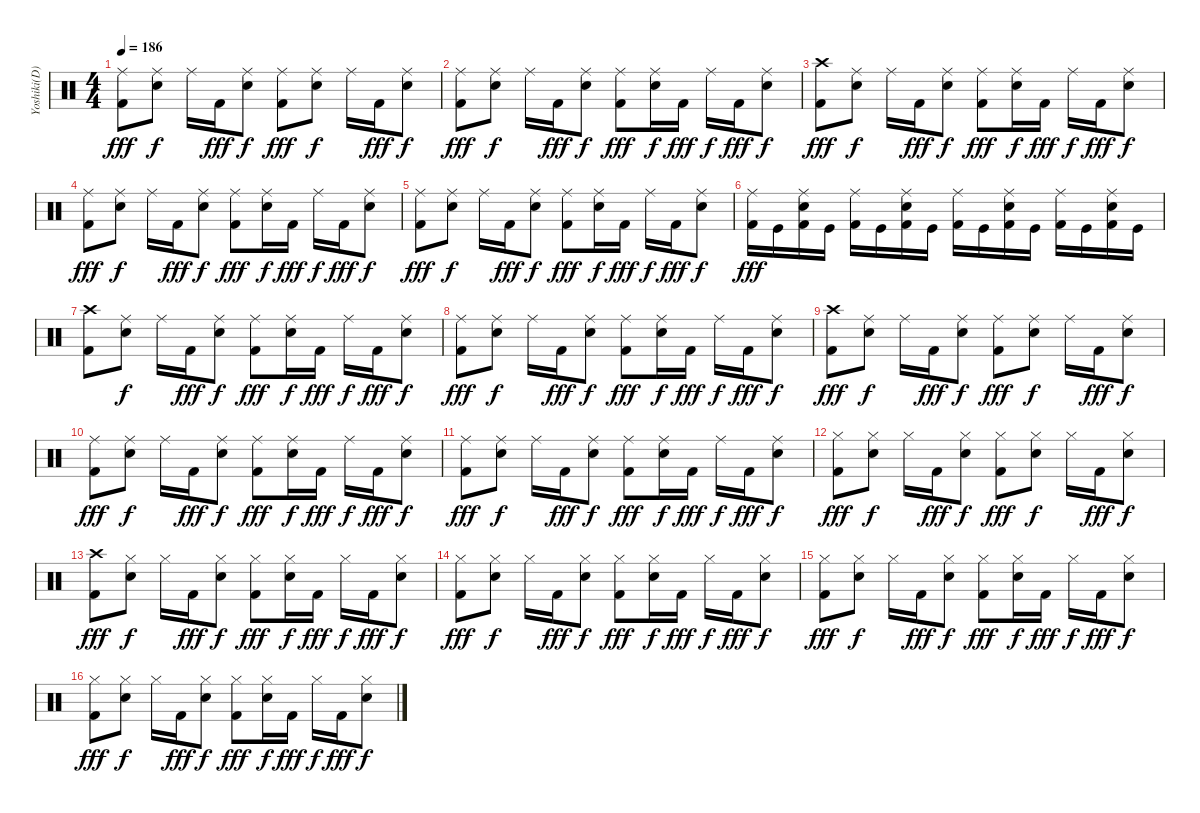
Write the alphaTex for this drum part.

\track ("Yoshiki(D)" "Yoshiki(D)") {instrument percussion}
\staff {score}
\articulation defaults
\ts (4 4)
\tempo 186
\clef neutral
\ks c
("Ride (middle)" "Kick (hit) 2").8{dy fff} ("Ride (middle)" "Electric Snare (hit)").8{dy f} "Ride (middle)".16 "Kick (hit) 2".16{dy fff} ("Ride (middle)" "Electric Snare (hit)").8{dy f} ("Ride (middle)" "Kick (hit) 2").8{dy fff} ("Ride (middle)" "Electric Snare (hit)").8{dy f} "Ride (middle)".16 "Kick (hit) 2".16{dy fff} ("Ride (middle)" "Electric Snare (hit)").8{dy f} |
("Ride (middle)" "Kick (hit) 2").8{dy fff} ("Ride (middle)" "Electric Snare (hit)").8{dy f} "Ride (middle)".16 "Kick (hit) 2".16{dy fff} ("Ride (middle)" "Electric Snare (hit)").8{dy f} ("Ride (middle)" "Kick (hit) 2").8{dy fff} ("Ride (middle)" "Electric Snare (hit)").16{dy f} "Kick (hit) 2".16{dy fff} "Ride (middle)".16{dy f} "Kick (hit) 2".16{dy fff} ("Ride (middle)" "Electric Snare (hit)").8{dy f} |
("Crash high (hit)" "Kick (hit) 2").8{dy fff} ("Ride (middle)" "Electric Snare (hit)").8{dy f} "Ride (middle)".16 "Kick (hit) 2".16{dy fff} ("Ride (middle)" "Electric Snare (hit)").8{dy f} ("Ride (middle)" "Kick (hit) 2").8{dy fff} ("Ride (middle)" "Electric Snare (hit)").16{dy f} "Kick (hit) 2".16{dy fff} "Ride (middle)".16{dy f} "Kick (hit) 2".16{dy fff} ("Ride (middle)" "Electric Snare (hit)").8{dy f} |
("Ride (middle)" "Kick (hit) 2").8{dy fff} ("Ride (middle)" "Electric Snare (hit)").8{dy f} "Ride (middle)".16 "Kick (hit) 2".16{dy fff} ("Ride (middle)" "Electric Snare (hit)").8{dy f} ("Ride (middle)" "Kick (hit) 2").8{dy fff} ("Ride (middle)" "Electric Snare (hit)").16{dy f} "Kick (hit) 2".16{dy fff} "Ride (middle)".16{dy f} "Kick (hit) 2".16{dy fff} ("Ride (middle)" "Electric Snare (hit)").8{dy f} |
("Ride (middle)" "Kick (hit) 2").8{dy fff} ("Ride (middle)" "Electric Snare (hit)").8{dy f} "Ride (middle)".16 "Kick (hit) 2".16{dy fff} ("Ride (middle)" "Electric Snare (hit)").8{dy f} ("Ride (middle)" "Kick (hit) 2").8{dy fff} ("Ride (middle)" "Electric Snare (hit)").16{dy f} "Kick (hit) 2".16{dy fff} "Ride (middle)".16{dy f} "Kick (hit) 2".16{dy fff} ("Ride (middle)" "Electric Snare (hit)").8{dy f} |
("Ride (middle)" "Kick (hit) 2").16{dy fff} "Kick (hit)".16 ("Ride (middle)" "Electric Snare (hit)" "Kick (hit) 2").16 "Kick (hit)".16 ("Ride (middle)" "Kick (hit) 2").16 "Kick (hit)".16 ("Ride (middle)" "Electric Snare (hit)" "Kick (hit) 2").16 "Kick (hit)".16 ("Ride (middle)" "Kick (hit) 2").16 "Kick (hit)".16 ("Ride (middle)" "Electric Snare (hit)" "Kick (hit) 2").16 "Kick (hit)".16 ("Ride (middle)" "Kick (hit) 2").16 "Kick (hit)".16 ("Ride (middle)" "Electric Snare (hit)" "Kick (hit) 2").16 "Kick (hit)".16 |
("Crash high (hit)" "Kick (hit) 2").8 ("Ride (middle)" "Electric Snare (hit)").8{dy f} "Ride (middle)".16 "Kick (hit) 2".16{dy fff} ("Ride (middle)" "Electric Snare (hit)").8{dy f} ("Ride (middle)" "Kick (hit) 2").8{dy fff} ("Ride (middle)" "Electric Snare (hit)").16{dy f} "Kick (hit) 2".16{dy fff} "Ride (middle)".16{dy f} "Kick (hit) 2".16{dy fff} ("Ride (middle)" "Electric Snare (hit)").8{dy f} |
("Ride (middle)" "Kick (hit) 2").8{dy fff} ("Ride (middle)" "Electric Snare (hit)").8{dy f} "Ride (middle)".16 "Kick (hit) 2".16{dy fff} ("Ride (middle)" "Electric Snare (hit)").8{dy f} ("Ride (middle)" "Kick (hit) 2").8{dy fff} ("Ride (middle)" "Electric Snare (hit)").16{dy f} "Kick (hit) 2".16{dy fff} "Ride (middle)".16{dy f} "Kick (hit) 2".16{dy fff} ("Ride (middle)" "Electric Snare (hit)").8{dy f} |
("Crash high (hit)" "Kick (hit) 2").8{dy fff} ("Ride (middle)" "Electric Snare (hit)").8{dy f} "Ride (middle)".16 "Kick (hit) 2".16{dy fff} ("Ride (middle)" "Electric Snare (hit)").8{dy f} ("Ride (middle)" "Kick (hit) 2").8{dy fff} ("Ride (middle)" "Electric Snare (hit)").8{dy f} "Ride (middle)".16 "Kick (hit) 2".16{dy fff} ("Ride (middle)" "Electric Snare (hit)").8{dy f} |
("Ride (middle)" "Kick (hit) 2").8{dy fff} ("Ride (middle)" "Electric Snare (hit)").8{dy f} "Ride (middle)".16 "Kick (hit) 2".16{dy fff} ("Ride (middle)" "Electric Snare (hit)").8{dy f} ("Ride (middle)" "Kick (hit) 2").8{dy fff} ("Ride (middle)" "Electric Snare (hit)").16{dy f} "Kick (hit) 2".16{dy fff} "Ride (middle)".16{dy f} "Kick (hit) 2".16{dy fff} ("Ride (middle)" "Electric Snare (hit)").8{dy f} |
("Ride (middle)" "Kick (hit) 2").8{dy fff} ("Ride (middle)" "Electric Snare (hit)").8{dy f} "Ride (middle)".16 "Kick (hit) 2".16{dy fff} ("Ride (middle)" "Electric Snare (hit)").8{dy f} ("Ride (middle)" "Kick (hit) 2").8{dy fff} ("Ride (middle)" "Electric Snare (hit)").16{dy f} "Kick (hit) 2".16{dy fff} "Ride (middle)".16{dy f} "Kick (hit) 2".16{dy fff} ("Ride (middle)" "Electric Snare (hit)").8{dy f} |
("Hi-Hat (closed)" "Kick (hit) 2").8{dy fff} ("Hi-Hat (closed)" "Electric Snare (hit)").8{dy f} "Hi-Hat (closed)".16 "Kick (hit) 2".16{dy fff} ("Hi-Hat (closed)" "Electric Snare (hit)").8{dy f} ("Hi-Hat (closed)" "Kick (hit) 2").8{dy fff} ("Hi-Hat (closed)" "Electric Snare (hit)").8{dy f} "Hi-Hat (closed)".16 "Kick (hit) 2".16{dy fff} ("Hi-Hat (closed)" "Electric Snare (hit)").8{dy f} |
("Crash high (hit)" "Kick (hit) 2").8{dy fff} ("Hi-Hat (closed)" "Electric Snare (hit)").8{dy f} "Hi-Hat (closed)".16 "Kick (hit) 2".16{dy fff} ("Hi-Hat (closed)" "Electric Snare (hit)").8{dy f} ("Hi-Hat (closed)" "Kick (hit) 2").8{dy fff} ("Hi-Hat (closed)" "Electric Snare (hit)").16{dy f} "Kick (hit) 2".16{dy fff} "Hi-Hat (closed)".16{dy f} "Kick (hit) 2".16{dy fff} ("Hi-Hat (closed)" "Electric Snare (hit)").8{dy f} |
("Hi-Hat (closed)" "Kick (hit) 2").8{dy fff} ("Hi-Hat (closed)" "Electric Snare (hit)").8{dy f} "Hi-Hat (closed)".16 "Kick (hit) 2".16{dy fff} ("Hi-Hat (closed)" "Electric Snare (hit)").8{dy f} ("Hi-Hat (closed)" "Kick (hit) 2").8{dy fff} ("Hi-Hat (closed)" "Electric Snare (hit)").16{dy f} "Kick (hit) 2".16{dy fff} "Hi-Hat (closed)".16{dy f} "Kick (hit) 2".16{dy fff} ("Hi-Hat (closed)" "Electric Snare (hit)").8{dy f} |
("Hi-Hat (closed)" "Kick (hit) 2").8{dy fff} ("Hi-Hat (closed)" "Electric Snare (hit)").8{dy f} "Hi-Hat (closed)".16 "Kick (hit) 2".16{dy fff} ("Hi-Hat (closed)" "Electric Snare (hit)").8{dy f} ("Hi-Hat (closed)" "Kick (hit) 2").8{dy fff} ("Hi-Hat (closed)" "Electric Snare (hit)").16{dy f} "Kick (hit) 2".16{dy fff} "Hi-Hat (closed)".16{dy f} "Kick (hit) 2".16{dy fff} ("Hi-Hat (closed)" "Electric Snare (hit)").8{dy f} |
("Hi-Hat (closed)" "Kick (hit) 2").8{dy fff} ("Hi-Hat (closed)" "Electric Snare (hit)").8{dy f} "Hi-Hat (closed)".16 "Kick (hit) 2".16{dy fff} ("Hi-Hat (closed)" "Electric Snare (hit)").8{dy f} ("Hi-Hat (closed)" "Kick (hit) 2").8{dy fff} ("Hi-Hat (closed)" "Electric Snare (hit)").16{dy f} "Kick (hit) 2".16{dy fff} "Hi-Hat (closed)".16{dy f} "Kick (hit) 2".16{dy fff} ("Hi-Hat (closed)" "Electric Snare (hit)").8{dy f}
